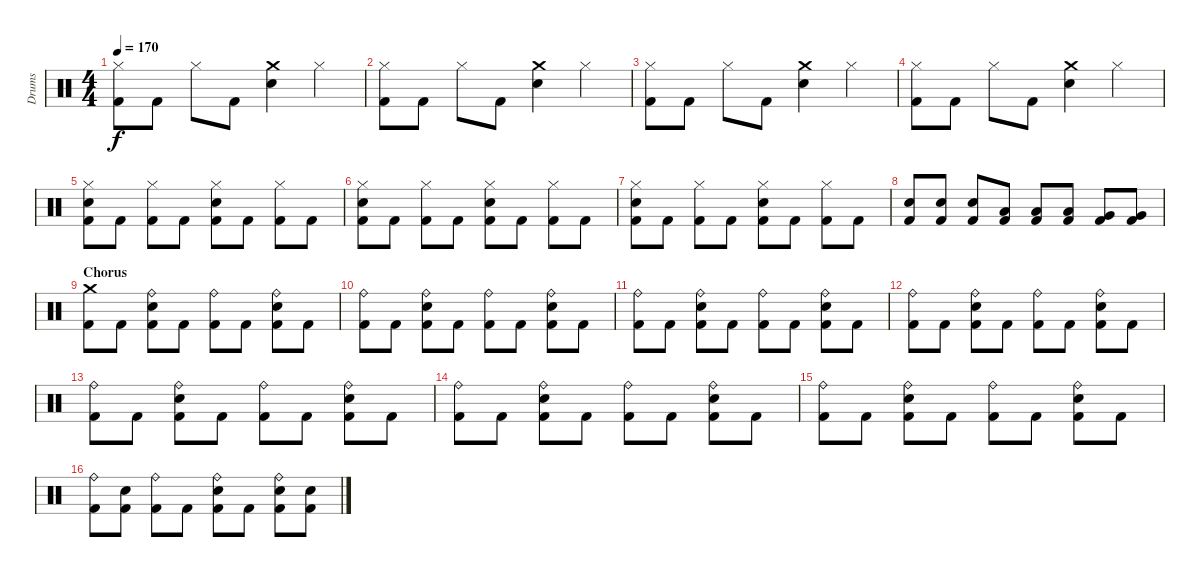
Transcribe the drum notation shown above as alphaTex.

\track ("Drums" "Drums") {instrument percussion}
\staff {score}
\articulation defaults
\ts (4 4)
\tempo 170
\clef neutral
\ks c
("Hi-Hat (closed)" "Kick (hit) 2").8{dy f} "Kick (hit) 2".8 "Hi-Hat (closed)".8 "Kick (hit) 2".8 ("Crash medium (hit)" "Electric Snare (hit)").4 "Hi-Hat (closed)".4 |
("Hi-Hat (closed)" "Kick (hit) 2").8 "Kick (hit) 2".8 "Hi-Hat (closed)".8 "Kick (hit) 2".8 ("Crash medium (hit)" "Electric Snare (hit)").4 "Hi-Hat (closed)".4 |
("Hi-Hat (closed)" "Kick (hit) 2").8 "Kick (hit) 2".8 "Hi-Hat (closed)".8 "Kick (hit) 2".8 ("Crash medium (hit)" "Electric Snare (hit)").4 "Hi-Hat (closed)".4 |
("Hi-Hat (closed)" "Kick (hit) 2").8 "Kick (hit) 2".8 "Hi-Hat (closed)".8 "Kick (hit) 2".8 ("Crash medium (hit)" "Electric Snare (hit)").4 "Hi-Hat (closed)".4 |
("Hi-Hat (closed)" "Electric Snare (hit)" "Kick (hit) 2").8 "Kick (hit) 2".8 ("Hi-Hat (closed)" "Kick (hit) 2").8 "Kick (hit) 2".8 ("Hi-Hat (closed)" "Electric Snare (hit)" "Kick (hit) 2").8 "Kick (hit) 2".8 ("Hi-Hat (closed)" "Kick (hit) 2").8 "Kick (hit) 2".8 |
("Hi-Hat (closed)" "Electric Snare (hit)" "Kick (hit) 2").8 "Kick (hit) 2".8 ("Hi-Hat (closed)" "Kick (hit) 2").8 "Kick (hit) 2".8 ("Hi-Hat (closed)" "Electric Snare (hit)" "Kick (hit) 2").8 "Kick (hit) 2".8 ("Hi-Hat (closed)" "Kick (hit) 2").8 "Kick (hit) 2".8 |
("Hi-Hat (closed)" "Electric Snare (hit)" "Kick (hit) 2").8 "Kick (hit) 2".8 ("Hi-Hat (closed)" "Kick (hit) 2").8 "Kick (hit) 2".8 ("Hi-Hat (closed)" "Electric Snare (hit)" "Kick (hit) 2").8 "Kick (hit) 2".8 ("Hi-Hat (closed)" "Kick (hit) 2").8 "Kick (hit) 2".8 |
("Electric Snare (hit)" "Kick (hit) 2").8 ("Electric Snare (hit)" "Kick (hit) 2").8 ("Electric Snare (hit)" "Kick (hit) 2").8 ("Low Tom (hit)" "Kick (hit) 2").8 ("Low Tom (hit)" "Kick (hit) 2").8 ("Low Tom (hit)" "Kick (hit) 2").8 ("Very Low Tom (hit)" "Kick (hit) 2").8 ("Very Low Tom (hit)" "Kick (hit) 2").8 |
\section ("" "Chorus")
("Crash medium (hit)" "Kick (hit) 2").8 "Kick (hit) 2".8 ("Ride (bell)" "Electric Snare (hit)" "Kick (hit) 2").8 "Kick (hit) 2".8 ("Ride (bell)" "Kick (hit) 2").8 "Kick (hit) 2".8 ("Ride (bell)" "Electric Snare (hit)" "Kick (hit) 2").8 "Kick (hit) 2".8 |
("Ride (bell)" "Kick (hit) 2").8 "Kick (hit) 2".8 ("Ride (bell)" "Electric Snare (hit)" "Kick (hit) 2").8 "Kick (hit) 2".8 ("Ride (bell)" "Kick (hit) 2").8 "Kick (hit) 2".8 ("Ride (bell)" "Electric Snare (hit)" "Kick (hit) 2").8 "Kick (hit) 2".8 |
("Ride (bell)" "Kick (hit) 2").8 "Kick (hit) 2".8 ("Ride (bell)" "Electric Snare (hit)" "Kick (hit) 2").8 "Kick (hit) 2".8 ("Ride (bell)" "Kick (hit) 2").8 "Kick (hit) 2".8 ("Ride (bell)" "Electric Snare (hit)" "Kick (hit) 2").8 "Kick (hit) 2".8 |
("Ride (bell)" "Kick (hit) 2").8 "Kick (hit) 2".8 ("Ride (bell)" "Electric Snare (hit)" "Kick (hit) 2").8 "Kick (hit) 2".8 ("Ride (bell)" "Kick (hit) 2").8 "Kick (hit) 2".8 ("Ride (bell)" "Electric Snare (hit)" "Kick (hit) 2").8 "Kick (hit) 2".8 |
("Ride (bell)" "Kick (hit) 2").8 "Kick (hit) 2".8 ("Ride (bell)" "Electric Snare (hit)" "Kick (hit) 2").8 "Kick (hit) 2".8 ("Ride (bell)" "Kick (hit) 2").8 "Kick (hit) 2".8 ("Ride (bell)" "Electric Snare (hit)" "Kick (hit) 2").8 "Kick (hit) 2".8 |
("Ride (bell)" "Kick (hit) 2").8 "Kick (hit) 2".8 ("Ride (bell)" "Electric Snare (hit)" "Kick (hit) 2").8 "Kick (hit) 2".8 ("Ride (bell)" "Kick (hit) 2").8 "Kick (hit) 2".8 ("Ride (bell)" "Electric Snare (hit)" "Kick (hit) 2").8 "Kick (hit) 2".8 |
("Ride (bell)" "Kick (hit) 2").8 "Kick (hit) 2".8 ("Ride (bell)" "Electric Snare (hit)" "Kick (hit) 2").8 "Kick (hit) 2".8 ("Ride (bell)" "Kick (hit) 2").8 "Kick (hit) 2".8 ("Ride (bell)" "Electric Snare (hit)" "Kick (hit) 2").8 "Kick (hit) 2".8 |
("Ride (bell)" "Kick (hit) 2").8 ("Electric Snare (hit)" "Kick (hit) 2").8 ("Ride (bell)" "Kick (hit) 2").8 "Kick (hit) 2".8 ("Ride (bell)" "Electric Snare (hit)" "Kick (hit) 2").8 "Kick (hit) 2".8 ("Ride (bell)" "Electric Snare (hit)" "Kick (hit) 2").8 ("Electric Snare (hit)" "Kick (hit) 2").8
